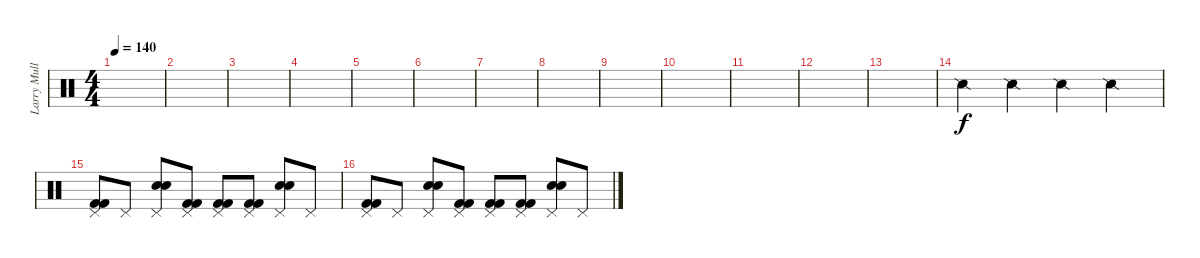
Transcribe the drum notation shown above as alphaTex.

\track ("Larry Mullen JR." "Larry Mull") {instrument percussion}
\staff {score}
\articulation defaults
\ts (4 4)
\tempo 140
\clef neutral
\ks c
|
|
|
|
|
|
|
|
|
|
|
|
|
"Snare (side stick) 2".4 "Snare (side stick) 2".4 "Snare (side stick) 2".4 "Snare (side stick) 2".4 |
("Kick (hit) 2" "Kick (hit) 2" "Pedal Hi-Hat (hit)").8 "Pedal Hi-Hat (hit)".8 ("Electric Snare (hit)" "Snare (hit) 2" "Pedal Hi-Hat (hit)").8 ("Kick (hit) 2" "Kick (hit) 2" "Pedal Hi-Hat (hit)").8 ("Kick (hit) 2" "Kick (hit) 2" "Pedal Hi-Hat (hit)").8 ("Kick (hit) 2" "Kick (hit) 2" "Pedal Hi-Hat (hit)").8 ("Snare (hit) 2" "Electric Snare (hit)" "Pedal Hi-Hat (hit)").8 "Pedal Hi-Hat (hit)".8 |
("Kick (hit) 2" "Kick (hit) 2" "Pedal Hi-Hat (hit)").8 "Pedal Hi-Hat (hit)".8 ("Electric Snare (hit)" "Snare (hit) 2" "Pedal Hi-Hat (hit)").8 ("Kick (hit) 2" "Kick (hit) 2" "Pedal Hi-Hat (hit)").8 ("Kick (hit) 2" "Kick (hit) 2" "Pedal Hi-Hat (hit)").8 ("Kick (hit) 2" "Kick (hit) 2" "Pedal Hi-Hat (hit)").8 ("Snare (hit) 2" "Electric Snare (hit)" "Pedal Hi-Hat (hit)").8 "Pedal Hi-Hat (hit)".8
